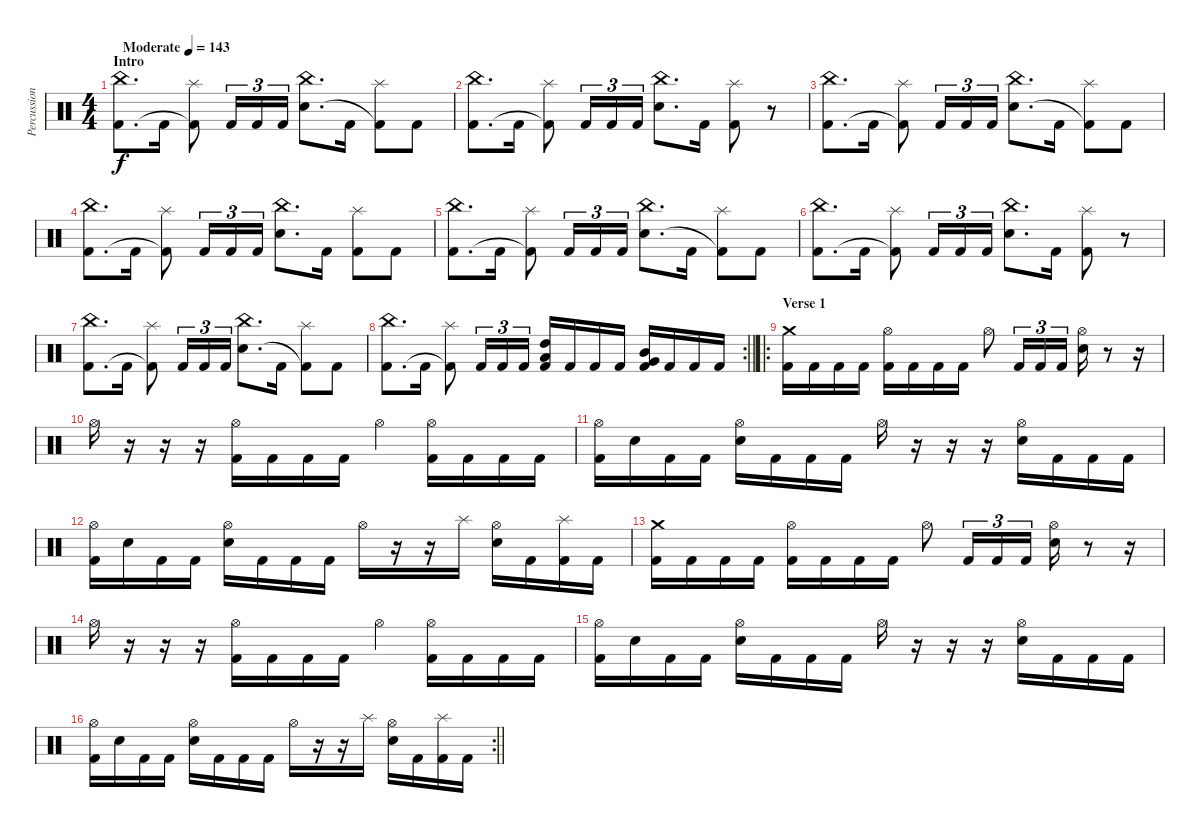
\track ("Percussion" "Percussion") {instrument percussion}
\staff {score}
\articulation defaults
\ts (4 4)
\section ("" "Intro")
\tempo (143 "Moderate")
\clef neutral
\ks c
("China (hit)" "Kick (hit) 2").8{d dy f} "Kick (hit) 2".16 ("Splash (hit)" "Kick (hit) 2"{t}).8 "Kick (hit) 2".16{tu (3 2)} "Kick (hit) 2".16{tu (3 2)} "Kick (hit) 2".16{tu (3 2)} ("China (hit)" "Electric Snare (hit)").8{d} "Kick (hit) 2".16 ("Splash (hit)" "Kick (hit) 2"{t}).8 "Kick (hit) 2".8 |
("China (hit)" "Kick (hit) 2").8{d} "Kick (hit) 2".16 ("Splash (hit)" "Kick (hit) 2"{t}).8 "Kick (hit) 2".16{tu (3 2)} "Kick (hit) 2".16{tu (3 2)} "Kick (hit) 2".16{tu (3 2)} ("China (hit)" "Electric Snare (hit)").8{d} "Kick (hit) 2".16 ("Splash (hit)" "Kick (hit) 2").8 r.8 |
("China (hit)" "Kick (hit) 2").8{d} "Kick (hit) 2".16 ("Splash (hit)" "Kick (hit) 2"{t}).8 "Kick (hit) 2".16{tu (3 2)} "Kick (hit) 2".16{tu (3 2)} "Kick (hit) 2".16{tu (3 2)} ("China (hit)" "Electric Snare (hit)").8{d} "Kick (hit) 2".16 ("Splash (hit)" "Kick (hit) 2"{t}).8 "Kick (hit) 2".8 |
("China (hit)" "Kick (hit) 2").8{d} "Kick (hit) 2".16 ("Splash (hit)" "Kick (hit) 2"{t}).8 "Kick (hit) 2".16{tu (3 2)} "Kick (hit) 2".16{tu (3 2)} "Kick (hit) 2".16{tu (3 2)} ("China (hit)" "Electric Snare (hit)").8{d} "Kick (hit) 2".16 ("Splash (hit)" "Kick (hit) 2").8 "Kick (hit) 2".8 |
("China (hit)" "Kick (hit) 2").8{d} "Kick (hit) 2".16 ("Splash (hit)" "Kick (hit) 2"{t}).8 "Kick (hit) 2".16{tu (3 2)} "Kick (hit) 2".16{tu (3 2)} "Kick (hit) 2".16{tu (3 2)} ("China (hit)" "Electric Snare (hit)").8{d} "Kick (hit) 2".16 ("Splash (hit)" "Kick (hit) 2"{t}).8 "Kick (hit) 2".8 |
("China (hit)" "Kick (hit) 2").8{d} "Kick (hit) 2".16 ("Splash (hit)" "Kick (hit) 2"{t}).8 "Kick (hit) 2".16{tu (3 2)} "Kick (hit) 2".16{tu (3 2)} "Kick (hit) 2".16{tu (3 2)} ("China (hit)" "Electric Snare (hit)").8{d} "Kick (hit) 2".16 ("Splash (hit)" "Kick (hit) 2").8 r.8 |
("China (hit)" "Kick (hit) 2").8{d} "Kick (hit) 2".16 ("Splash (hit)" "Kick (hit) 2"{t}).8 "Kick (hit) 2".16{tu (3 2)} "Kick (hit) 2".16{tu (3 2)} "Kick (hit) 2".16{tu (3 2)} ("China (hit)" "Electric Snare (hit)").8{d} "Kick (hit) 2".16 ("Splash (hit)" "Kick (hit) 2"{t}).8 "Kick (hit) 2".8 |
\rc 2
\barLineRight lightlight
("China (hit)" "Kick (hit) 2").8{d} "Kick (hit) 2".16 ("Splash (hit)" "Kick (hit) 2"{t}).8 "Kick (hit) 2".16{tu (3 2)} "Kick (hit) 2".16{tu (3 2)} "Kick (hit) 2".16{tu (3 2)} ("High Tom (hit)" "Low Tom (hit)" "Kick (hit) 2").16 "Kick (hit) 2".16 "Kick (hit) 2".16 "Kick (hit) 2".16 ("Mid Tom (hit)" "Very Low Tom (hit)" "Kick (hit) 2").16 "Kick (hit) 2".16 "Kick (hit) 2".16 "Kick (hit) 2".16 |
\ro
\section ("" "Verse 1")
("Crash medium (hit)" "Kick (hit) 2").16 "Kick (hit) 2".16 "Kick (hit) 2".16 "Kick (hit) 2".16 ("Hi-Hat (open)" "Kick (hit) 2").16 "Kick (hit) 2".16 "Kick (hit) 2".16 "Kick (hit) 2".16 "Hi-Hat (open)".8 "Kick (hit) 2".16{tu (3 2)} "Kick (hit) 2".16{tu (3 2)} "Kick (hit) 2".16{tu (3 2)} ("Hi-Hat (open)" "Electric Snare (hit)").16 r.8 r.16 |
"Hi-Hat (open)".16 r.16 r.16 r.16 ("Hi-Hat (open)" "Kick (hit) 2").16 "Kick (hit) 2".16 "Kick (hit) 2".16 "Kick (hit) 2".16 "Hi-Hat (open)".4 ("Hi-Hat (open)" "Kick (hit) 2").16 "Kick (hit) 2".16 "Kick (hit) 2".16 "Kick (hit) 2".16 |
("Hi-Hat (open)" "Kick (hit) 2").16 "Electric Snare (hit)".16 "Kick (hit) 2".16 "Kick (hit) 2".16 ("Hi-Hat (open)" "Electric Snare (hit)").16 "Kick (hit) 2".16 "Kick (hit) 2".16 "Kick (hit) 2".16 "Hi-Hat (open)".16 r.16 r.16 r.16 ("Hi-Hat (open)" "Electric Snare (hit)").16 "Kick (hit) 2".16 "Kick (hit) 2".16 "Kick (hit) 2".16 |
("Hi-Hat (open)" "Kick (hit) 2").16 "Electric Snare (hit)".16 "Kick (hit) 2".16 "Kick (hit) 2".16 ("Hi-Hat (open)" "Electric Snare (hit)").16 "Kick (hit) 2".16 "Kick (hit) 2".16 "Kick (hit) 2".16 "Hi-Hat (open)".16 r.16 r.16 "Splash (hit)".16 ("Hi-Hat (open)" "Electric Snare (hit)").16 "Kick (hit) 2".16 ("Splash (hit)" "Kick (hit) 2").16 "Kick (hit) 2".16 |
("Crash medium (hit)" "Kick (hit) 2").16 "Kick (hit) 2".16 "Kick (hit) 2".16 "Kick (hit) 2".16 ("Hi-Hat (open)" "Kick (hit) 2").16 "Kick (hit) 2".16 "Kick (hit) 2".16 "Kick (hit) 2".16 "Hi-Hat (open)".8 "Kick (hit) 2".16{tu (3 2)} "Kick (hit) 2".16{tu (3 2)} "Kick (hit) 2".16{tu (3 2)} ("Hi-Hat (open)" "Electric Snare (hit)").16 r.8 r.16 |
"Hi-Hat (open)".16 r.16 r.16 r.16 ("Hi-Hat (open)" "Kick (hit) 2").16 "Kick (hit) 2".16 "Kick (hit) 2".16 "Kick (hit) 2".16 "Hi-Hat (open)".4 ("Hi-Hat (open)" "Kick (hit) 2").16 "Kick (hit) 2".16 "Kick (hit) 2".16 "Kick (hit) 2".16 |
("Hi-Hat (open)" "Kick (hit) 2").16 "Electric Snare (hit)".16 "Kick (hit) 2".16 "Kick (hit) 2".16 ("Hi-Hat (open)" "Electric Snare (hit)").16 "Kick (hit) 2".16 "Kick (hit) 2".16 "Kick (hit) 2".16 "Hi-Hat (open)".16 r.16 r.16 r.16 ("Hi-Hat (open)" "Electric Snare (hit)").16 "Kick (hit) 2".16 "Kick (hit) 2".16 "Kick (hit) 2".16 |
\rc 2
\barLineRight lightlight
("Hi-Hat (open)" "Kick (hit) 2").16 "Electric Snare (hit)".16 "Kick (hit) 2".16 "Kick (hit) 2".16 ("Hi-Hat (open)" "Electric Snare (hit)").16 "Kick (hit) 2".16 "Kick (hit) 2".16 "Kick (hit) 2".16 "Hi-Hat (open)".16 r.16 r.16 "Splash (hit)".16 ("Hi-Hat (open)" "Electric Snare (hit)").16 "Kick (hit) 2".16 ("Splash (hit)" "Kick (hit) 2").16 "Kick (hit) 2".16
